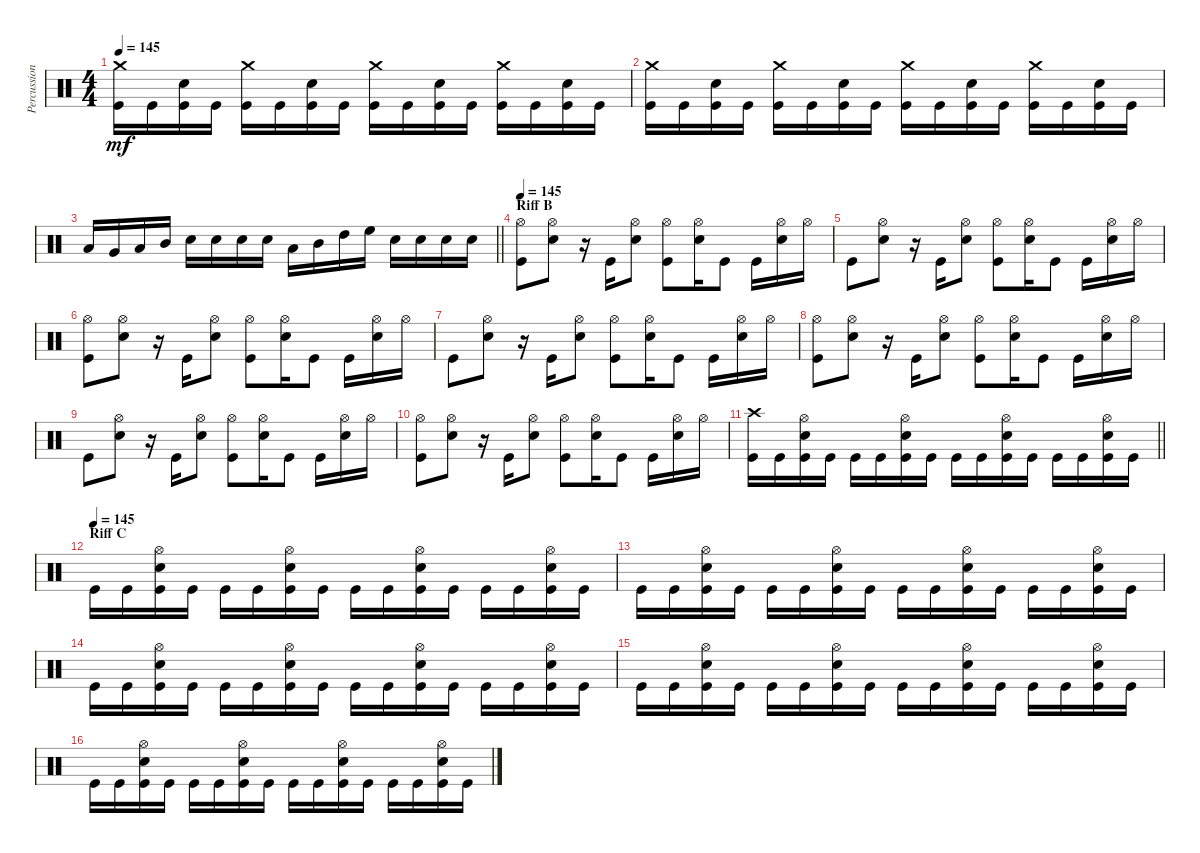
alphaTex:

\track ("Percussion" "Percussion") {instrument percussion}
\staff {score}
\articulation defaults
\ts (4 4)
\tempo 145
\clef neutral
\ks c
("Crash medium (hit)" "Kick (hit)").16{dy mf} "Kick (hit)".16 ("Snare (hit) 2" "Kick (hit)").16 "Kick (hit)".16 ("Crash medium (hit)" "Kick (hit)").16 "Kick (hit)".16 ("Snare (hit) 2" "Kick (hit)").16 "Kick (hit)".16 ("Crash medium (hit)" "Kick (hit)").16 "Kick (hit)".16 ("Snare (hit) 2" "Kick (hit)").16 "Kick (hit)".16 ("Crash medium (hit)" "Kick (hit)").16 "Kick (hit)".16 ("Snare (hit) 2" "Kick (hit)").16 "Kick (hit)".16 |
("Crash medium (hit)" "Kick (hit)").16 "Kick (hit)".16 ("Snare (hit) 2" "Kick (hit)").16 "Kick (hit)".16 ("Crash medium (hit)" "Kick (hit)").16 "Kick (hit)".16 ("Snare (hit) 2" "Kick (hit)").16 "Kick (hit)".16 ("Crash medium (hit)" "Kick (hit)").16 "Kick (hit)".16 ("Snare (hit) 2" "Kick (hit)").16 "Kick (hit)".16 ("Crash medium (hit)" "Kick (hit)").16 "Kick (hit)".16 ("Snare (hit) 2" "Kick (hit)").16 "Kick (hit)".16 |
\barLineRight lightlight "Low Floor Tom (hit)".16 "Very Low Tom (hit)".16 "Low Tom (hit)".16 "Mid Tom (hit)".16 "Snare (hit) 2".16 "Snare (hit) 2".16 "Snare (hit) 2".16 "Snare (hit) 2".16 "Low Tom (hit)".16 "Mid Tom (hit)".16 "High Tom (hit)".16 "High Floor Tom (hit)".16 "Snare (hit) 2".16 "Snare (hit) 2".16 "Snare (hit) 2".16 "Snare (hit) 2".16
|
\section ("" "Riff B")
\tempo 145
("Hi-Hat (open)" "Kick (hit)").8 ("Snare (hit) 2" "Hi-Hat (open)").8 r.16 "Kick (hit)".16 ("Snare (hit) 2" "Hi-Hat (open)").8 ("Hi-Hat (open)" "Kick (hit)").8 ("Snare (hit) 2" "Hi-Hat (open)").16 "Kick (hit)".8 "Kick (hit)".16 ("Snare (hit) 2" "Hi-Hat (open)").16 "Hi-Hat (open)".16 |
"Kick (hit)".8 ("Snare (hit) 2" "Hi-Hat (open)").8 r.16 "Kick (hit)".16 ("Snare (hit) 2" "Hi-Hat (open)").8 ("Hi-Hat (open)" "Kick (hit)").8 ("Snare (hit) 2" "Hi-Hat (open)").16 "Kick (hit)".8 "Kick (hit)".16 ("Snare (hit) 2" "Hi-Hat (open)").16 "Hi-Hat (open)".16 |
("Hi-Hat (open)" "Kick (hit)").8 ("Snare (hit) 2" "Hi-Hat (open)").8 r.16 "Kick (hit)".16 ("Snare (hit) 2" "Hi-Hat (open)").8 ("Hi-Hat (open)" "Kick (hit)").8 ("Snare (hit) 2" "Hi-Hat (open)").16 "Kick (hit)".8 "Kick (hit)".16 ("Snare (hit) 2" "Hi-Hat (open)").16 "Hi-Hat (open)".16 |
"Kick (hit)".8 ("Snare (hit) 2" "Hi-Hat (open)").8 r.16 "Kick (hit)".16 ("Snare (hit) 2" "Hi-Hat (open)").8 ("Hi-Hat (open)" "Kick (hit)").8 ("Snare (hit) 2" "Hi-Hat (open)").16 "Kick (hit)".8 "Kick (hit)".16 ("Snare (hit) 2" "Hi-Hat (open)").16 "Hi-Hat (open)".16 |
("Hi-Hat (open)" "Kick (hit)").8 ("Snare (hit) 2" "Hi-Hat (open)").8 r.16 "Kick (hit)".16 ("Snare (hit) 2" "Hi-Hat (open)").8 ("Hi-Hat (open)" "Kick (hit)").8 ("Snare (hit) 2" "Hi-Hat (open)").16 "Kick (hit)".8 "Kick (hit)".16 ("Snare (hit) 2" "Hi-Hat (open)").16 "Hi-Hat (open)".16 |
"Kick (hit)".8 ("Snare (hit) 2" "Hi-Hat (open)").8 r.16 "Kick (hit)".16 ("Snare (hit) 2" "Hi-Hat (open)").8 ("Hi-Hat (open)" "Kick (hit)").8 ("Snare (hit) 2" "Hi-Hat (open)").16 "Kick (hit)".8 "Kick (hit)".16 ("Snare (hit) 2" "Hi-Hat (open)").16 "Hi-Hat (open)".16 |
("Hi-Hat (open)" "Kick (hit)").8 ("Snare (hit) 2" "Hi-Hat (open)").8 r.16 "Kick (hit)".16 ("Snare (hit) 2" "Hi-Hat (open)").8 ("Hi-Hat (open)" "Kick (hit)").8 ("Snare (hit) 2" "Hi-Hat (open)").16 "Kick (hit)".8 "Kick (hit)".16 ("Snare (hit) 2" "Hi-Hat (open)").16 "Hi-Hat (open)".16 |
\barLineRight lightlight
("Crash high (hit)" "Kick (hit)").16 "Kick (hit)".16 ("Snare (hit) 2" "Hi-Hat (open)" "Kick (hit)").16 "Kick (hit)".16 "Kick (hit)".16 "Kick (hit)".16 ("Snare (hit) 2" "Hi-Hat (open)" "Kick (hit)").16 "Kick (hit)".16 "Kick (hit)".16 "Kick (hit)".16 ("Snare (hit) 2" "Hi-Hat (open)" "Kick (hit)").16 "Kick (hit)".16 "Kick (hit)".16 "Kick (hit)".16 ("Snare (hit) 2" "Hi-Hat (open)" "Kick (hit)").16 "Kick (hit)".16 |
\section ("" "Riff C")
\tempo (145)
"Kick (hit)".16 "Kick (hit)".16 ("Snare (hit) 2" "Hi-Hat (open)" "Kick (hit)").16 "Kick (hit)".16 "Kick (hit)".16 "Kick (hit)".16 ("Snare (hit) 2" "Hi-Hat (open)" "Kick (hit)").16 "Kick (hit)".16 "Kick (hit)".16 "Kick (hit)".16 ("Snare (hit) 2" "Hi-Hat (open)" "Kick (hit)").16 "Kick (hit)".16 "Kick (hit)".16 "Kick (hit)".16 ("Snare (hit) 2" "Hi-Hat (open)" "Kick (hit)").16 "Kick (hit)".16 |
"Kick (hit)".16 "Kick (hit)".16 ("Snare (hit) 2" "Hi-Hat (open)" "Kick (hit)").16 "Kick (hit)".16 "Kick (hit)".16 "Kick (hit)".16 ("Snare (hit) 2" "Hi-Hat (open)" "Kick (hit)").16 "Kick (hit)".16 "Kick (hit)".16 "Kick (hit)".16 ("Snare (hit) 2" "Hi-Hat (open)" "Kick (hit)").16 "Kick (hit)".16 "Kick (hit)".16 "Kick (hit)".16 ("Snare (hit) 2" "Hi-Hat (open)" "Kick (hit)").16 "Kick (hit)".16 |
"Kick (hit)".16 "Kick (hit)".16 ("Snare (hit) 2" "Hi-Hat (open)" "Kick (hit)").16 "Kick (hit)".16 "Kick (hit)".16 "Kick (hit)".16 ("Snare (hit) 2" "Hi-Hat (open)" "Kick (hit)").16 "Kick (hit)".16 "Kick (hit)".16 "Kick (hit)".16 ("Snare (hit) 2" "Hi-Hat (open)" "Kick (hit)").16 "Kick (hit)".16 "Kick (hit)".16 "Kick (hit)".16 ("Snare (hit) 2" "Hi-Hat (open)" "Kick (hit)").16 "Kick (hit)".16 |
"Kick (hit)".16 "Kick (hit)".16 ("Snare (hit) 2" "Hi-Hat (open)" "Kick (hit)").16 "Kick (hit)".16 "Kick (hit)".16 "Kick (hit)".16 ("Snare (hit) 2" "Hi-Hat (open)" "Kick (hit)").16 "Kick (hit)".16 "Kick (hit)".16 "Kick (hit)".16 ("Snare (hit) 2" "Hi-Hat (open)" "Kick (hit)").16 "Kick (hit)".16 "Kick (hit)".16 "Kick (hit)".16 ("Snare (hit) 2" "Hi-Hat (open)" "Kick (hit)").16 "Kick (hit)".16 |
"Kick (hit)".16 "Kick (hit)".16 ("Snare (hit) 2" "Hi-Hat (open)" "Kick (hit)").16 "Kick (hit)".16 "Kick (hit)".16 "Kick (hit)".16 ("Snare (hit) 2" "Hi-Hat (open)" "Kick (hit)").16 "Kick (hit)".16 "Kick (hit)".16 "Kick (hit)".16 ("Snare (hit) 2" "Hi-Hat (open)" "Kick (hit)").16 "Kick (hit)".16 "Kick (hit)".16 "Kick (hit)".16 ("Snare (hit) 2" "Hi-Hat (open)" "Kick (hit)").16 "Kick (hit)".16
